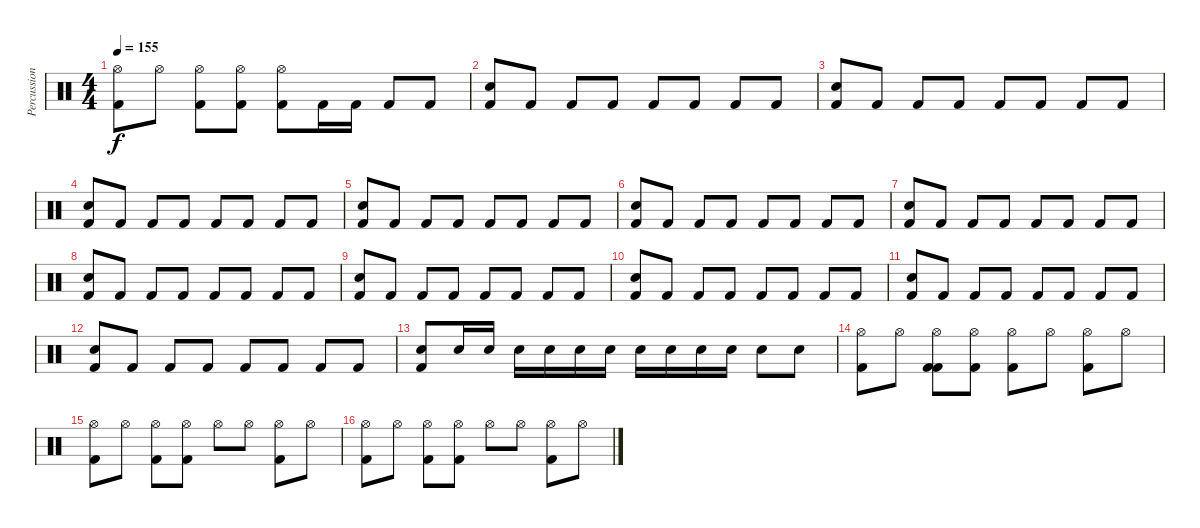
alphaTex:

\track ("Percussion" "Percussion") {instrument percussion}
\staff {score}
\articulation defaults
\ts (4 4)
\tempo 155
\clef neutral
\ks c
("Hi-Hat (open)" "Kick (hit) 2").8{dy f} "Hi-Hat (open)".8 ("Hi-Hat (open)" "Kick (hit) 2").8 ("Hi-Hat (open)" "Kick (hit) 2").8 ("Hi-Hat (open)" "Kick (hit) 2").8 "Kick (hit) 2".16 "Kick (hit) 2".16 "Kick (hit) 2".8 "Kick (hit) 2".8 |
("Kick (hit) 2" "Snare (hit) 2").8 "Kick (hit) 2".8 "Kick (hit) 2".8 "Kick (hit) 2".8 "Kick (hit) 2".8 "Kick (hit) 2".8 "Kick (hit) 2".8 "Kick (hit) 2".8 |
("Kick (hit) 2" "Snare (hit) 2").8 "Kick (hit) 2".8 "Kick (hit) 2".8 "Kick (hit) 2".8 "Kick (hit) 2".8 "Kick (hit) 2".8 "Kick (hit) 2".8 "Kick (hit) 2".8 |
("Kick (hit) 2" "Snare (hit) 2").8 "Kick (hit) 2".8 "Kick (hit) 2".8 "Kick (hit) 2".8 "Kick (hit) 2".8 "Kick (hit) 2".8 "Kick (hit) 2".8 "Kick (hit) 2".8 |
("Kick (hit) 2" "Snare (hit) 2").8 "Kick (hit) 2".8 "Kick (hit) 2".8 "Kick (hit) 2".8 "Kick (hit) 2".8 "Kick (hit) 2".8 "Kick (hit) 2".8 "Kick (hit) 2".8 |
("Kick (hit) 2" "Snare (hit) 2").8 "Kick (hit) 2".8 "Kick (hit) 2".8 "Kick (hit) 2".8 "Kick (hit) 2".8 "Kick (hit) 2".8 "Kick (hit) 2".8 "Kick (hit) 2".8 |
("Kick (hit) 2" "Snare (hit) 2").8 "Kick (hit) 2".8 "Kick (hit) 2".8 "Kick (hit) 2".8 "Kick (hit) 2".8 "Kick (hit) 2".8 "Kick (hit) 2".8 "Kick (hit) 2".8 |
("Kick (hit) 2" "Snare (hit) 2").8 "Kick (hit) 2".8 "Kick (hit) 2".8 "Kick (hit) 2".8 "Kick (hit) 2".8 "Kick (hit) 2".8 "Kick (hit) 2".8 "Kick (hit) 2".8 |
("Kick (hit) 2" "Snare (hit) 2").8 "Kick (hit) 2".8 "Kick (hit) 2".8 "Kick (hit) 2".8 "Kick (hit) 2".8 "Kick (hit) 2".8 "Kick (hit) 2".8 "Kick (hit) 2".8 |
("Kick (hit) 2" "Snare (hit) 2").8 "Kick (hit) 2".8 "Kick (hit) 2".8 "Kick (hit) 2".8 "Kick (hit) 2".8 "Kick (hit) 2".8 "Kick (hit) 2".8 "Kick (hit) 2".8 |
("Kick (hit) 2" "Snare (hit) 2").8 "Kick (hit) 2".8 "Kick (hit) 2".8 "Kick (hit) 2".8 "Kick (hit) 2".8 "Kick (hit) 2".8 "Kick (hit) 2".8 "Kick (hit) 2".8 |
("Kick (hit) 2" "Snare (hit) 2").8 "Kick (hit) 2".8 "Kick (hit) 2".8 "Kick (hit) 2".8 "Kick (hit) 2".8 "Kick (hit) 2".8 "Kick (hit) 2".8 "Kick (hit) 2".8 |
("Snare (hit) 2" "Kick (hit) 2").8 "Snare (hit) 2".16 "Snare (hit) 2".16 "Snare (hit) 2".16 "Snare (hit) 2".16 "Snare (hit) 2".16 "Snare (hit) 2".16 "Snare (hit) 2".16 "Snare (hit) 2".16 "Snare (hit) 2".16 "Snare (hit) 2".16 "Snare (hit) 2".8 "Snare (hit) 2".8 |
("Hi-Hat (open)" "Kick (hit) 2").8 "Hi-Hat (open)".8 ("Hi-Hat (open)" "Kick (hit) 2" "Kick (hit) 2").8 ("Hi-Hat (open)" "Kick (hit) 2").8 ("Hi-Hat (open)" "Kick (hit) 2").8 "Hi-Hat (open)".8 ("Hi-Hat (open)" "Kick (hit) 2").8 "Hi-Hat (open)".8 |
("Hi-Hat (open)" "Kick (hit) 2").8 "Hi-Hat (open)".8 ("Hi-Hat (open)" "Kick (hit) 2").8 ("Hi-Hat (open)" "Kick (hit) 2").8 "Hi-Hat (open)".8 "Hi-Hat (open)".8 ("Hi-Hat (open)" "Kick (hit) 2").8 "Hi-Hat (open)".8 |
("Hi-Hat (open)" "Kick (hit) 2").8 "Hi-Hat (open)".8 ("Hi-Hat (open)" "Kick (hit) 2").8 ("Hi-Hat (open)" "Kick (hit) 2").8 "Hi-Hat (open)".8 "Hi-Hat (open)".8 ("Hi-Hat (open)" "Kick (hit) 2").8 "Hi-Hat (open)".8
